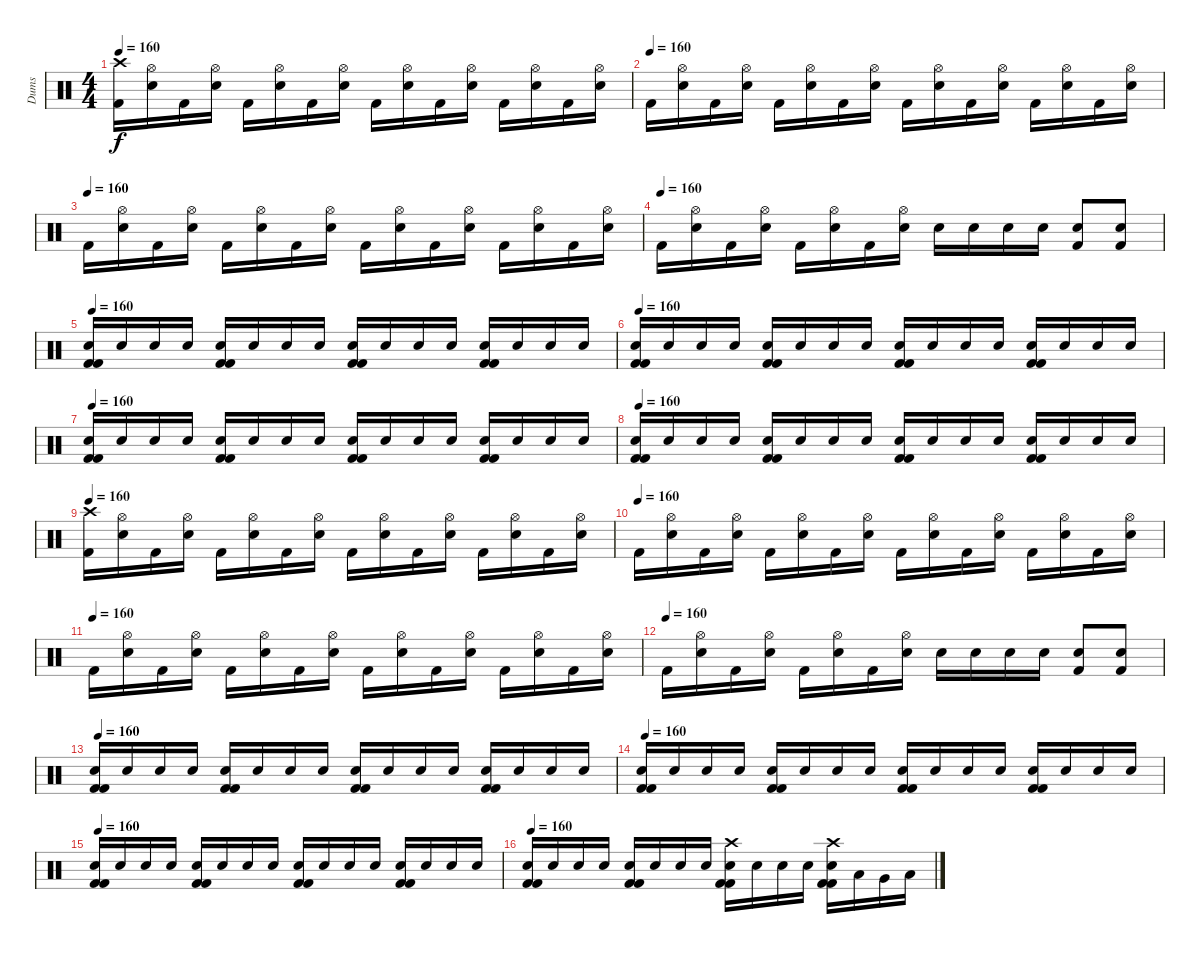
\track ("Dums" "Dums") {instrument percussion}
\staff {score}
\articulation defaults
\ts (4 4)
\tempo 160
\clef neutral
\ks c
("Crash high (hit)" "Kick (hit) 2").16{dy f} ("Hi-Hat (open)" "Electric Snare (hit)").16 "Kick (hit) 2".16 ("Hi-Hat (open)" "Electric Snare (hit)").16 "Kick (hit) 2".16 ("Hi-Hat (open)" "Electric Snare (hit)").16 "Kick (hit) 2".16 ("Hi-Hat (open)" "Electric Snare (hit)").16 "Kick (hit) 2".16 ("Hi-Hat (open)" "Electric Snare (hit)").16 "Kick (hit) 2".16 ("Hi-Hat (open)" "Electric Snare (hit)").16 "Kick (hit) 2".16 ("Hi-Hat (open)" "Electric Snare (hit)").16 "Kick (hit) 2".16 ("Hi-Hat (open)" "Electric Snare (hit)").16 |
\tempo (160)
"Kick (hit) 2".16 ("Hi-Hat (open)" "Electric Snare (hit)").16 "Kick (hit) 2".16 ("Hi-Hat (open)" "Electric Snare (hit)").16 "Kick (hit) 2".16 ("Hi-Hat (open)" "Electric Snare (hit)").16 "Kick (hit) 2".16 ("Hi-Hat (open)" "Electric Snare (hit)").16 "Kick (hit) 2".16 ("Hi-Hat (open)" "Electric Snare (hit)").16 "Kick (hit) 2".16 ("Hi-Hat (open)" "Electric Snare (hit)").16 "Kick (hit) 2".16 ("Hi-Hat (open)" "Electric Snare (hit)").16 "Kick (hit) 2".16 ("Hi-Hat (open)" "Electric Snare (hit)").16 |
\tempo (160)
"Kick (hit) 2".16 ("Hi-Hat (open)" "Electric Snare (hit)").16 "Kick (hit) 2".16 ("Hi-Hat (open)" "Electric Snare (hit)").16 "Kick (hit) 2".16 ("Hi-Hat (open)" "Electric Snare (hit)").16 "Kick (hit) 2".16 ("Hi-Hat (open)" "Electric Snare (hit)").16 "Kick (hit) 2".16 ("Hi-Hat (open)" "Electric Snare (hit)").16 "Kick (hit) 2".16 ("Hi-Hat (open)" "Electric Snare (hit)").16 "Kick (hit) 2".16 ("Hi-Hat (open)" "Electric Snare (hit)").16 "Kick (hit) 2".16 ("Hi-Hat (open)" "Electric Snare (hit)").16 |
\tempo (160)
"Kick (hit) 2".16 ("Hi-Hat (open)" "Electric Snare (hit)").16 "Kick (hit) 2".16 ("Hi-Hat (open)" "Electric Snare (hit)").16 "Kick (hit) 2".16 ("Hi-Hat (open)" "Electric Snare (hit)").16 "Kick (hit) 2".16 ("Hi-Hat (open)" "Electric Snare (hit)").16 "Electric Snare (hit)".16 "Electric Snare (hit)".16 "Electric Snare (hit)".16 "Electric Snare (hit)".16 ("Electric Snare (hit)" "Kick (hit) 2").8 ("Electric Snare (hit)" "Kick (hit) 2").8 |
\tempo 160
("Electric Snare (hit)" "Kick (hit) 2" "Kick (hit) 2").16 "Electric Snare (hit)".16 "Electric Snare (hit)".16 "Electric Snare (hit)".16 ("Electric Snare (hit)" "Kick (hit) 2" "Kick (hit) 2").16 "Electric Snare (hit)".16 "Electric Snare (hit)".16 "Electric Snare (hit)".16 ("Electric Snare (hit)" "Kick (hit) 2" "Kick (hit) 2").16 "Electric Snare (hit)".16 "Electric Snare (hit)".16 "Electric Snare (hit)".16 ("Electric Snare (hit)" "Kick (hit) 2" "Kick (hit) 2").16 "Electric Snare (hit)".16 "Electric Snare (hit)".16 "Electric Snare (hit)".16 |
\tempo 160
("Electric Snare (hit)" "Kick (hit) 2" "Kick (hit) 2").16 "Electric Snare (hit)".16 "Electric Snare (hit)".16 "Electric Snare (hit)".16 ("Electric Snare (hit)" "Kick (hit) 2" "Kick (hit) 2").16 "Electric Snare (hit)".16 "Electric Snare (hit)".16 "Electric Snare (hit)".16 ("Electric Snare (hit)" "Kick (hit) 2" "Kick (hit) 2").16 "Electric Snare (hit)".16 "Electric Snare (hit)".16 "Electric Snare (hit)".16 ("Electric Snare (hit)" "Kick (hit) 2" "Kick (hit) 2").16 "Electric Snare (hit)".16 "Electric Snare (hit)".16 "Electric Snare (hit)".16 |
\tempo 160
("Electric Snare (hit)" "Kick (hit) 2" "Kick (hit) 2").16 "Electric Snare (hit)".16 "Electric Snare (hit)".16 "Electric Snare (hit)".16 ("Electric Snare (hit)" "Kick (hit) 2" "Kick (hit) 2").16 "Electric Snare (hit)".16 "Electric Snare (hit)".16 "Electric Snare (hit)".16 ("Electric Snare (hit)" "Kick (hit) 2" "Kick (hit) 2").16 "Electric Snare (hit)".16 "Electric Snare (hit)".16 "Electric Snare (hit)".16 ("Electric Snare (hit)" "Kick (hit) 2" "Kick (hit) 2").16 "Electric Snare (hit)".16 "Electric Snare (hit)".16 "Electric Snare (hit)".16 |
\tempo 160
("Electric Snare (hit)" "Kick (hit) 2" "Kick (hit) 2").16 "Electric Snare (hit)".16 "Electric Snare (hit)".16 "Electric Snare (hit)".16 ("Electric Snare (hit)" "Kick (hit) 2" "Kick (hit) 2").16 "Electric Snare (hit)".16 "Electric Snare (hit)".16 "Electric Snare (hit)".16 ("Electric Snare (hit)" "Kick (hit) 2" "Kick (hit) 2").16 "Electric Snare (hit)".16 "Electric Snare (hit)".16 "Electric Snare (hit)".16 ("Electric Snare (hit)" "Kick (hit) 2" "Kick (hit) 2").16 "Electric Snare (hit)".16 "Electric Snare (hit)".16 "Electric Snare (hit)".16 |
\tempo 160
("Crash high (hit)" "Kick (hit) 2").16 ("Hi-Hat (open)" "Electric Snare (hit)").16 "Kick (hit) 2".16 ("Hi-Hat (open)" "Electric Snare (hit)").16 "Kick (hit) 2".16 ("Hi-Hat (open)" "Electric Snare (hit)").16 "Kick (hit) 2".16 ("Hi-Hat (open)" "Electric Snare (hit)").16 "Kick (hit) 2".16 ("Hi-Hat (open)" "Electric Snare (hit)").16 "Kick (hit) 2".16 ("Hi-Hat (open)" "Electric Snare (hit)").16 "Kick (hit) 2".16 ("Hi-Hat (open)" "Electric Snare (hit)").16 "Kick (hit) 2".16 ("Hi-Hat (open)" "Electric Snare (hit)").16 |
\tempo (160)
"Kick (hit) 2".16 ("Hi-Hat (open)" "Electric Snare (hit)").16 "Kick (hit) 2".16 ("Hi-Hat (open)" "Electric Snare (hit)").16 "Kick (hit) 2".16 ("Hi-Hat (open)" "Electric Snare (hit)").16 "Kick (hit) 2".16 ("Hi-Hat (open)" "Electric Snare (hit)").16 "Kick (hit) 2".16 ("Hi-Hat (open)" "Electric Snare (hit)").16 "Kick (hit) 2".16 ("Hi-Hat (open)" "Electric Snare (hit)").16 "Kick (hit) 2".16 ("Hi-Hat (open)" "Electric Snare (hit)").16 "Kick (hit) 2".16 ("Hi-Hat (open)" "Electric Snare (hit)").16 |
\tempo (160)
"Kick (hit) 2".16 ("Hi-Hat (open)" "Electric Snare (hit)").16 "Kick (hit) 2".16 ("Hi-Hat (open)" "Electric Snare (hit)").16 "Kick (hit) 2".16 ("Hi-Hat (open)" "Electric Snare (hit)").16 "Kick (hit) 2".16 ("Hi-Hat (open)" "Electric Snare (hit)").16 "Kick (hit) 2".16 ("Hi-Hat (open)" "Electric Snare (hit)").16 "Kick (hit) 2".16 ("Hi-Hat (open)" "Electric Snare (hit)").16 "Kick (hit) 2".16 ("Hi-Hat (open)" "Electric Snare (hit)").16 "Kick (hit) 2".16 ("Hi-Hat (open)" "Electric Snare (hit)").16 |
\tempo (160)
"Kick (hit) 2".16 ("Hi-Hat (open)" "Electric Snare (hit)").16 "Kick (hit) 2".16 ("Hi-Hat (open)" "Electric Snare (hit)").16 "Kick (hit) 2".16 ("Hi-Hat (open)" "Electric Snare (hit)").16 "Kick (hit) 2".16 ("Hi-Hat (open)" "Electric Snare (hit)").16 "Electric Snare (hit)".16 "Electric Snare (hit)".16 "Electric Snare (hit)".16 "Electric Snare (hit)".16 ("Electric Snare (hit)" "Kick (hit) 2").8 ("Electric Snare (hit)" "Kick (hit) 2").8 |
\tempo 160
("Electric Snare (hit)" "Kick (hit) 2" "Kick (hit) 2").16 "Electric Snare (hit)".16 "Electric Snare (hit)".16 "Electric Snare (hit)".16 ("Electric Snare (hit)" "Kick (hit) 2" "Kick (hit) 2").16 "Electric Snare (hit)".16 "Electric Snare (hit)".16 "Electric Snare (hit)".16 ("Electric Snare (hit)" "Kick (hit) 2" "Kick (hit) 2").16 "Electric Snare (hit)".16 "Electric Snare (hit)".16 "Electric Snare (hit)".16 ("Electric Snare (hit)" "Kick (hit) 2" "Kick (hit) 2").16 "Electric Snare (hit)".16 "Electric Snare (hit)".16 "Electric Snare (hit)".16 |
\tempo 160
("Electric Snare (hit)" "Kick (hit) 2" "Kick (hit) 2").16 "Electric Snare (hit)".16 "Electric Snare (hit)".16 "Electric Snare (hit)".16 ("Electric Snare (hit)" "Kick (hit) 2" "Kick (hit) 2").16 "Electric Snare (hit)".16 "Electric Snare (hit)".16 "Electric Snare (hit)".16 ("Electric Snare (hit)" "Kick (hit) 2" "Kick (hit) 2").16 "Electric Snare (hit)".16 "Electric Snare (hit)".16 "Electric Snare (hit)".16 ("Electric Snare (hit)" "Kick (hit) 2" "Kick (hit) 2").16 "Electric Snare (hit)".16 "Electric Snare (hit)".16 "Electric Snare (hit)".16 |
\tempo 160
("Electric Snare (hit)" "Kick (hit) 2" "Kick (hit) 2").16 "Electric Snare (hit)".16 "Electric Snare (hit)".16 "Electric Snare (hit)".16 ("Electric Snare (hit)" "Kick (hit) 2" "Kick (hit) 2").16 "Electric Snare (hit)".16 "Electric Snare (hit)".16 "Electric Snare (hit)".16 ("Electric Snare (hit)" "Kick (hit) 2" "Kick (hit) 2").16 "Electric Snare (hit)".16 "Electric Snare (hit)".16 "Electric Snare (hit)".16 ("Electric Snare (hit)" "Kick (hit) 2" "Kick (hit) 2").16 "Electric Snare (hit)".16 "Electric Snare (hit)".16 "Electric Snare (hit)".16 |
\tempo 160
("Electric Snare (hit)" "Kick (hit) 2" "Kick (hit) 2").16 "Electric Snare (hit)".16 "Electric Snare (hit)".16 "Electric Snare (hit)".16 ("Electric Snare (hit)" "Kick (hit) 2" "Kick (hit) 2").16 "Electric Snare (hit)".16 "Electric Snare (hit)".16 "Electric Snare (hit)".16 ("Crash high (hit)" "Electric Snare (hit)" "Kick (hit) 2" "Kick (hit) 2").16 "Electric Snare (hit)".16 "Electric Snare (hit)".16 "Electric Snare (hit)".16 ("Crash high (hit)" "Electric Snare (hit)" "Kick (hit) 2" "Kick (hit) 2").16 "Low Tom (hit)".16 "Very Low Tom (hit)".16 "Low Floor Tom (hit)".16
